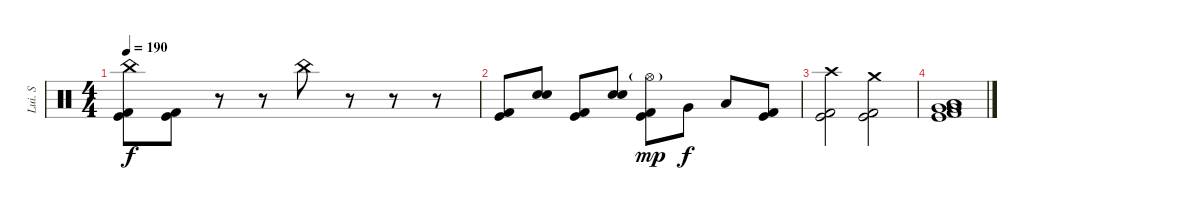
\track ("Lui. S" "Lui. S") {instrument percussion}
\staff {score}
\articulation defaults
\ts (4 4)
\tempo 190
\clef neutral
\ks c
("China (hit)" "Kick (hit)" "Kick (hit) 2").8{dy f} ("Kick (hit)" "Kick (hit) 2").8 r.8 r.8 "China (hit)".8 r.8 r.8 r.8 |
("Kick (hit) 2" "Kick (hit)").8 ("Snare (hit) 2" "Electric Snare (hit)").8 ("Kick (hit) 2" "Kick (hit)").8 ("Snare (hit) 2" "Electric Snare (hit)").8 ("Hi-Hat (open)"{g} "Kick (hit) 2" "Kick (hit)").8{dy mp} "Very Low Tom (hit)".8{dy f} "Low Floor Tom (hit)".8 ("Kick (hit) 2" "Kick (hit)").8 |
("Crash high (hit)" "Kick (hit) 2" "Kick (hit)").2 ("Crash medium (hit)" "Kick (hit) 2" "Kick (hit)").2 |
("Low Floor Tom (hit)" "Low Floor Tom (hit)" "Very Low Tom (hit)" "Very Low Tom (hit)" "Kick (hit) 2" "Kick (hit)").1
